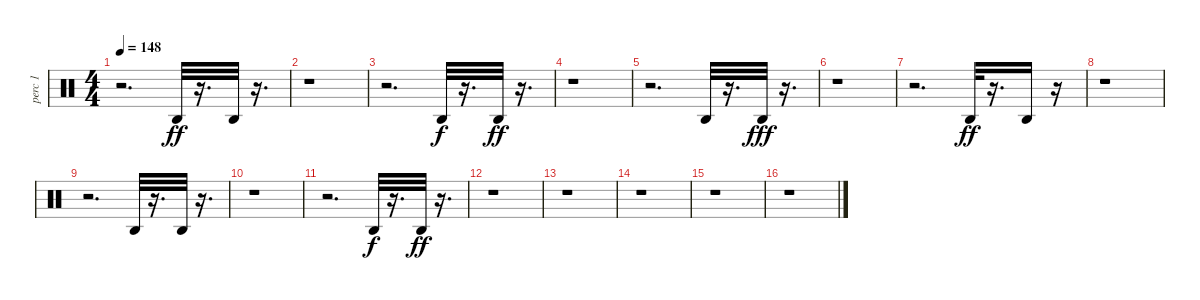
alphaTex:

\track ("perc 1              " "perc 1    ") {instrument percussion}
\staff {score}
\articulation defaults
\ts (4 4)
\tempo 148
\clef neutral
\ks c
r.2{d dy ff} "Agogo high (hit)".32 r.16{d} "Agogo high (hit)".32 r.16{d} |
r.1 |
r.2{d} "Agogo high (hit)".32{dy f} r.16{d} "Agogo high (hit)".32{dy ff} r.16{d} |
r.1 |
r.2{d} "Agogo high (hit)".32 r.16{d} "Agogo high (hit)".32{dy fff} r.16{d} |
r.1 |
r.2{d} "Agogo high (hit)".32{dy ff} r.16{d} "Agogo high (hit)".16 r.16 |
r.1 |
r.2{d} "Agogo high (hit)".32 r.16{d} "Agogo high (hit)".32 r.16{d} |
r.1 |
r.2{d} "Agogo high (hit)".32{dy f} r.16{d} "Agogo high (hit)".32{dy ff} r.16{d} |
r.1 |
r.1 |
r.1 |
r.1 |
r.1
